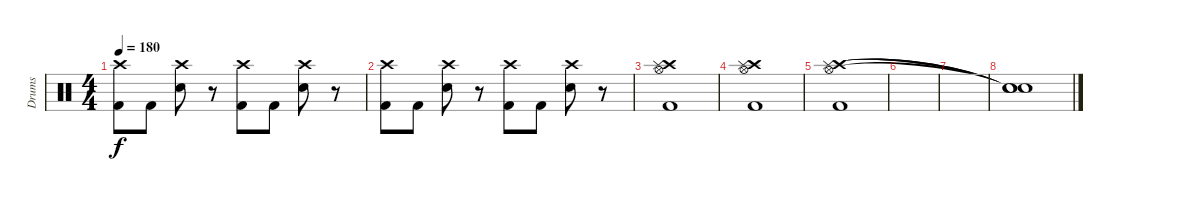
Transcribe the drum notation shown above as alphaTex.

\track ("Drums" "Drums") {instrument percussion}
\staff {score}
\articulation defaults
\ts (4 4)
\tempo 180
\clef neutral
\ks c
("Crash high (hit)" "Kick (hit) 2").8{dy f} "Kick (hit) 2".8 ("Crash high (hit)" "Snare (hit) 2").8 r.8 ("Crash high (hit)" "Kick (hit) 2").8 "Kick (hit) 2".8 ("Crash high (hit)" "Snare (hit) 2").8 r.8 |
("Crash high (hit)" "Kick (hit) 2").8 "Kick (hit) 2".8 ("Crash high (hit)" "Snare (hit) 2").8 r.8 ("Crash high (hit)" "Kick (hit) 2").8 "Kick (hit) 2".8 ("Crash high (hit)" "Snare (hit) 2").8 r.8 |
("Hi-Hat (open)" "Crash high (hit)" "Splash (hit)" "Kick (hit) 2").1 |
("Hi-Hat (open)" "Crash high (hit)" "Splash (hit)" "Kick (hit) 2").1 |
("Hi-Hat (open)" "Crash high (hit)" "Splash (hit)" "Kick (hit) 2").1 |
|
|
("Snare (hit)"{t} "Snare (hit)"{t} "Snare (hit)"{t}).1
